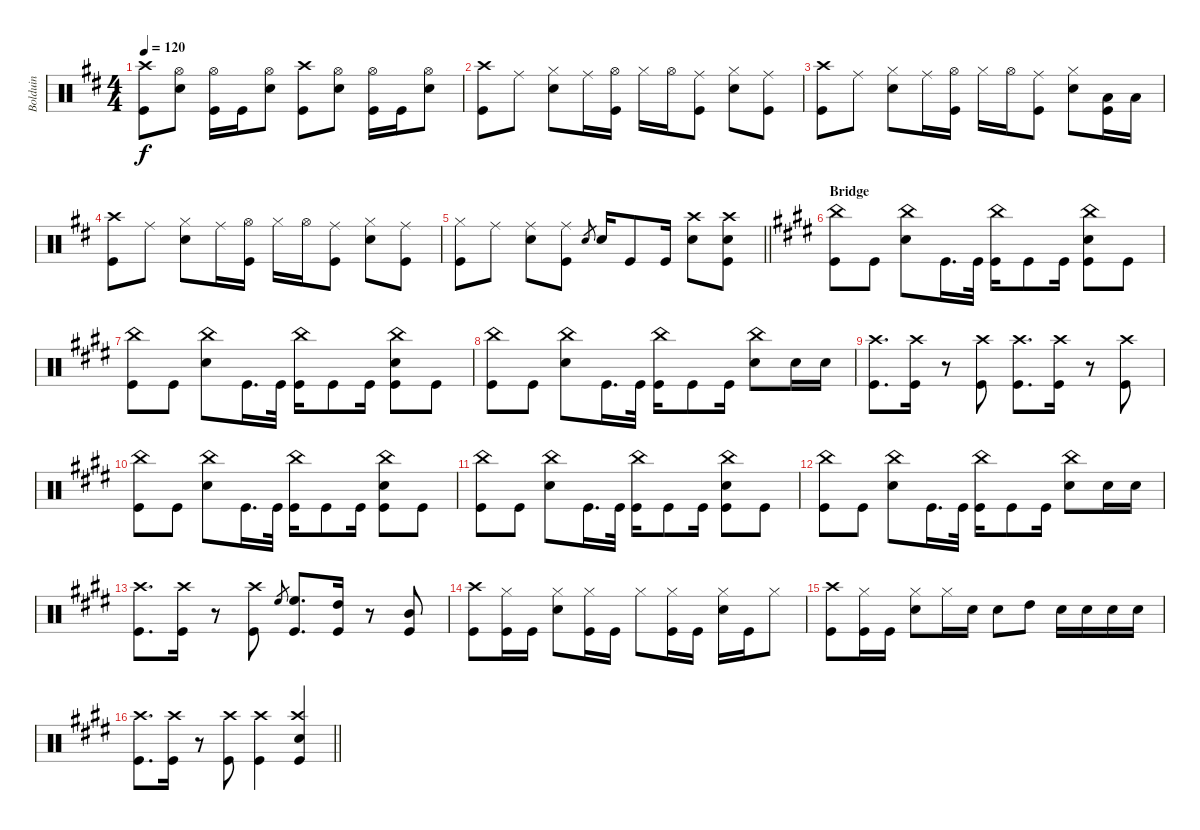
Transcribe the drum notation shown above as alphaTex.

\track ("Bolduin" "Bolduin") {instrument percussion}
\staff {score}
\articulation defaults
\ts (4 4)
\tempo 120
\clef neutral
\ks bminor
("Kick (hit)" "Crash high (hit)").8{dy f} ("Snare (hit) 2" "Hi-Hat (open)").8 ("Kick (hit)" "Hi-Hat (open)").16 "Kick (hit)".16 ("Snare (hit) 2" "Hi-Hat (open)").8 ("Kick (hit)" "Crash high (hit)").8 ("Snare (hit) 2" "Hi-Hat (open)").8 ("Kick (hit)" "Hi-Hat (open)").16 "Kick (hit)".16 ("Snare (hit) 2" "Hi-Hat (open)").8 |
("Crash high (hit)" "Kick (hit)").8 "Ride (middle)".8 ("Hi-Hat (closed)" "Snare (hit) 2").8 "Ride (middle)".16 ("Hi-Hat (open)" "Kick (hit)").16 "Hi-Hat (closed)".16 "Hi-Hat (open)".16 ("Ride (middle)" "Kick (hit)").8 ("Hi-Hat (closed)" "Snare (hit) 2").8 ("Ride (middle)" "Kick (hit)").8 |
("Crash high (hit)" "Kick (hit)").8 "Ride (middle)".8 ("Hi-Hat (closed)" "Snare (hit) 2").8 "Ride (middle)".16 ("Hi-Hat (open)" "Kick (hit)").16 "Hi-Hat (closed)".16 "Hi-Hat (open)".16 ("Ride (middle)" "Kick (hit)").8 ("Hi-Hat (closed)" "Snare (hit) 2").8 ("Low Tom (hit)" "Kick (hit)").16 "Low Tom (hit)".16 |
("Crash high (hit)" "Kick (hit)").8 "Ride (middle)".8 ("Hi-Hat (closed)" "Snare (hit) 2").8 "Ride (middle)".16 ("Hi-Hat (open)" "Kick (hit)").16 "Hi-Hat (closed)".16 "Hi-Hat (open)".16 ("Ride (middle)" "Kick (hit)").8 ("Hi-Hat (closed)" "Snare (hit) 2").8 ("Ride (middle)" "Kick (hit)").8 |
\barLineRight lightlight
("Kick (hit)" "Hi-Hat (closed)").8 "Ride (middle)".8 ("Ride (middle)" "Snare (hit) 2").8 ("Kick (hit)" "Ride (middle)").8 "Snare (hit) 2".8{gr} "Snare (hit) 2".16 "Kick (hit)".8 "Kick (hit)".16 ("Snare (hit) 2" "Crash high (hit)").8 ("Kick (hit)" "Crash high (hit)" "Snare (hit) 2").8 |
\section ("" "Bridge")
\ks c#minor
("Kick (hit)" "China (hit)").8 "Kick (hit)".8 ("Snare (hit) 2" "China (hit)").8 "Kick (hit)".16{d} "Kick (hit)".32 ("Kick (hit)" "China (hit)").16 "Kick (hit)".8 "Kick (hit)".16 ("China (hit)" "Kick (hit)" "Snare (hit) 2").8 "Kick (hit)".8 |
("Kick (hit)" "China (hit)").8 "Kick (hit)".8 ("Snare (hit) 2" "China (hit)").8 "Kick (hit)".16{d} "Kick (hit)".32 ("Kick (hit)" "China (hit)").16 "Kick (hit)".8 "Kick (hit)".16 ("China (hit)" "Kick (hit)" "Snare (hit) 2").8 "Kick (hit)".8 |
("Kick (hit)" "China (hit)").8 "Kick (hit)".8 ("Snare (hit) 2" "China (hit)").8 "Kick (hit)".16{d} "Kick (hit)".32 ("Kick (hit)" "China (hit)").16 "Kick (hit)".8 "Kick (hit)".16 ("Snare (hit) 2" "China (hit)").8 "Snare (hit) 2".16 "Snare (hit) 2".16 |
("Kick (hit)" "Crash high (hit)").8{d} ("Crash high (hit)" "Kick (hit)").16 r.8 ("Kick (hit)" "Crash high (hit)").8 ("Kick (hit)" "Crash high (hit)").8{d} ("Kick (hit)" "Crash high (hit)").16 r.8 ("Kick (hit)" "Crash high (hit)").8 |
("Kick (hit)" "China (hit)").8 "Kick (hit)".8 ("Snare (hit) 2" "China (hit)").8 "Kick (hit)".16{d} "Kick (hit)".32 ("Kick (hit)" "China (hit)").16 "Kick (hit)".8 "Kick (hit)".16 ("China (hit)" "Kick (hit)" "Snare (hit) 2").8 "Kick (hit)".8 |
("Kick (hit)" "China (hit)").8 "Kick (hit)".8 ("Snare (hit) 2" "China (hit)").8 "Kick (hit)".16{d} "Kick (hit)".32 ("Kick (hit)" "China (hit)").16 "Kick (hit)".8 "Kick (hit)".16 ("China (hit)" "Kick (hit)" "Snare (hit) 2").8 "Kick (hit)".8 |
("Kick (hit)" "China (hit)").8 "Kick (hit)".8 ("Snare (hit) 2" "China (hit)").8 "Kick (hit)".16{d} "Kick (hit)".32 ("Kick (hit)" "China (hit)").16 "Kick (hit)".8 "Kick (hit)".16 ("Snare (hit) 2" "China (hit)").8 "Snare (hit) 2".16 "Snare (hit) 2".16 |
("Kick (hit)" "Crash high (hit)").8{d} ("Crash high (hit)" "Kick (hit)").16 r.8 ("Kick (hit)" "Crash high (hit)").8 "High Floor Tom (hit)".8{gr} ("Kick (hit)" "High Floor Tom (hit)").8{d} ("Kick (hit)" "High Tom (hit)").16 r.8 ("Kick (hit)" "Mid Tom (hit)").8 |
("Kick (hit)" "Crash high (hit)").8 ("Kick (hit)" "Hi-Hat (closed)").16 "Kick (hit)".16 ("Snare (hit) 2" "Hi-Hat (closed)").8 ("Kick (hit)" "Hi-Hat (closed)").16 "Kick (hit)".16 "Hi-Hat (closed)".8 ("Kick (hit)" "Hi-Hat (closed)").16 "Kick (hit)".16 ("Snare (hit) 2" "Hi-Hat (closed)").16 "Kick (hit)".16 "Hi-Hat (closed)".8 |
("Kick (hit)" "Crash high (hit)").8 ("Kick (hit)" "Hi-Hat (closed)").16 "Kick (hit)".16 ("Snare (hit) 2" "Hi-Hat (closed)").8 "Hi-Hat (closed)".16 "Snare (hit) 2".16 "Snare (hit) 2".8 "High Tom (hit)".8 "Snare (hit) 2".16 "Snare (hit) 2".16 "Snare (hit) 2".16 "Snare (hit) 2".16 |
\barLineRight lightlight
("Crash high (hit)" "Kick (hit)").8{d} ("Kick (hit)" "Crash high (hit)").16 r.8 ("Kick (hit)" "Crash high (hit)").8 ("Kick (hit)" "Crash high (hit)").4 ("Kick (hit)" "Crash high (hit)" "Snare (hit) 2").4
